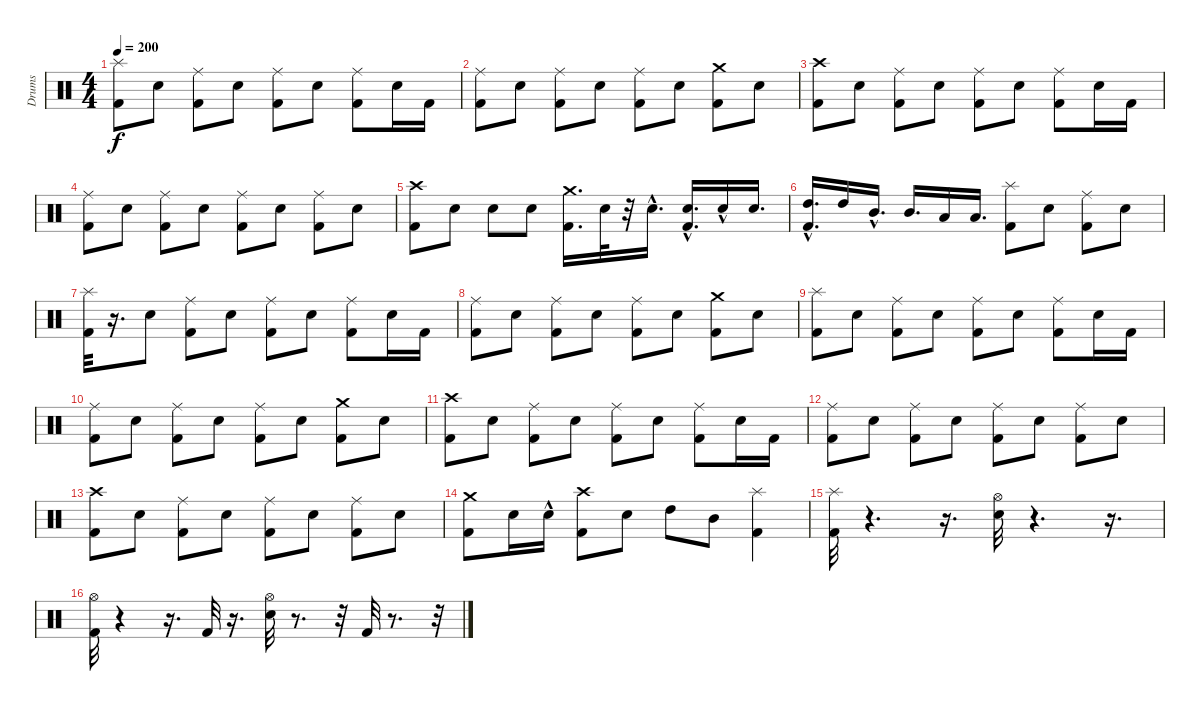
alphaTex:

\track ("Drums" "Drums") {instrument percussion}
\staff {score}
\articulation defaults
\ts (4 4)
\tempo 200
\clef neutral
\ks c
("Splash (hit)" "Kick (hit) 2").8{dy f} "Electric Snare (hit)".8 ("Ride (middle)" "Kick (hit) 2").8 "Electric Snare (hit)".8 ("Ride (middle)" "Kick (hit) 2").8 "Electric Snare (hit)".8 ("Ride (middle)" "Kick (hit) 2").8 "Electric Snare (hit)".16 "Kick (hit) 2".16 |
("Ride (middle)" "Kick (hit) 2").8 "Electric Snare (hit)".8 ("Ride (middle)" "Kick (hit) 2").8 "Electric Snare (hit)".8 ("Ride (middle)" "Kick (hit) 2").8 "Electric Snare (hit)".8 ("Crash medium (hit)" "Kick (hit) 2").8 "Electric Snare (hit)".8 |
("Crash high (hit)" "Kick (hit) 2").8 "Electric Snare (hit)".8 ("Ride (middle)" "Kick (hit) 2").8 "Electric Snare (hit)".8 ("Ride (middle)" "Kick (hit) 2").8 "Electric Snare (hit)".8 ("Ride (middle)" "Kick (hit) 2").8 "Electric Snare (hit)".16 "Kick (hit) 2".16 |
("Ride (middle)" "Kick (hit) 2").8 "Electric Snare (hit)".8 ("Ride (middle)" "Kick (hit) 2").8 "Electric Snare (hit)".8 ("Ride (middle)" "Kick (hit) 2").8 "Electric Snare (hit)".8 ("Ride (middle)" "Kick (hit) 2").8 "Electric Snare (hit)".8 |
("Crash high (hit)" "Kick (hit) 2").8 "Electric Snare (hit)".8 "Electric Snare (hit)".8 "Electric Snare (hit)".8 ("Crash medium (hit)" "Kick (hit) 2").16{d} "Electric Snare (hit)".32 r.32 "Electric Snare (hit)"{hac}.16{d} ("Kick (hit) 2" "Electric Snare (hit)"{hac}).16{d} "Electric Snare (hit)"{hac}.16 "Electric Snare (hit)".16{d} |
("High Tom (hit)"{hac} "Kick (hit) 2").16{d} "High Tom (hit)".16 "Mid Tom (hit)"{hac}.16{d} "Mid Tom (hit)".16{d} "Low Tom (hit)".16 "Low Tom (hit)".16{d} ("Splash (hit)" "Kick (hit) 2").8 "Electric Snare (hit)".8 ("Ride (middle)" "Kick (hit) 2").8 "Electric Snare (hit)".8 |
("Kick (hit) 2" "Splash (hit)").32 r.16{d} "Electric Snare (hit)".8 ("Ride (middle)" "Kick (hit) 2").8 "Electric Snare (hit)".8 ("Ride (middle)" "Kick (hit) 2").8 "Electric Snare (hit)".8 ("Ride (middle)" "Kick (hit) 2").8 "Electric Snare (hit)".16 "Kick (hit) 2".16 |
("Ride (middle)" "Kick (hit) 2").8 "Electric Snare (hit)".8 ("Kick (hit) 2" "Ride (middle)").8 "Electric Snare (hit)".8 ("Kick (hit) 2" "Ride (middle)").8 "Electric Snare (hit)".8 ("Kick (hit) 2" "Crash medium (hit)").8 "Electric Snare (hit)".8 |
("Splash (hit)" "Kick (hit) 2").8 "Electric Snare (hit)".8 ("Ride (middle)" "Kick (hit) 2").8 "Electric Snare (hit)".8 ("Ride (middle)" "Kick (hit) 2").8 "Electric Snare (hit)".8 ("Ride (middle)" "Kick (hit) 2").8 "Electric Snare (hit)".16 "Kick (hit) 2".16 |
("Ride (middle)" "Kick (hit) 2").8 "Electric Snare (hit)".8 ("Ride (middle)" "Kick (hit) 2").8 "Electric Snare (hit)".8 ("Ride (middle)" "Kick (hit) 2").8 "Electric Snare (hit)".8 ("Crash medium (hit)" "Kick (hit) 2").8 "Electric Snare (hit)".8 |
("Crash high (hit)" "Kick (hit) 2").8 "Electric Snare (hit)".8 ("Ride (middle)" "Kick (hit) 2").8 "Electric Snare (hit)".8 ("Ride (middle)" "Kick (hit) 2").8 "Electric Snare (hit)".8 ("Ride (middle)" "Kick (hit) 2").8 "Electric Snare (hit)".16 "Kick (hit) 2".16 |
("Ride (middle)" "Kick (hit) 2").8 "Electric Snare (hit)".8 ("Ride (middle)" "Kick (hit) 2").8 "Electric Snare (hit)".8 ("Ride (middle)" "Kick (hit) 2").8 "Electric Snare (hit)".8 ("Ride (middle)" "Kick (hit) 2").8 "Electric Snare (hit)".8 |
("Crash high (hit)" "Kick (hit) 2").8 "Electric Snare (hit)".8 ("Kick (hit) 2" "Ride (middle)").8 "Electric Snare (hit)".8 ("Ride (middle)" "Kick (hit) 2").8 "Electric Snare (hit)".8 ("Ride (middle)" "Kick (hit) 2").8 "Electric Snare (hit)".8 |
("Crash medium (hit)" "Kick (hit) 2").8 "Electric Snare (hit)".16 "Electric Snare (hit)"{hac}.16 ("Kick (hit) 2" "Crash high (hit)").8 "Electric Snare (hit)".8 "High Tom (hit)".8 "Mid Tom (hit)".8 ("Kick (hit) 2" "Splash (hit)").4 |
("Kick (hit) 2" "Splash (hit)").32 r.4{d} r.16{d} ("Hi-Hat (open)" "Electric Snare (hit)").32 r.4{d} r.16{d} |
("Hi-Hat (open)" "Kick (hit) 2").32 r.4 r.16{d} "Kick (hit) 2".32 r.16{d} ("Hi-Hat (open)" "Electric Snare (hit)").32 r.8{d} r.32 "Kick (hit) 2".32 r.8{d} r.32
